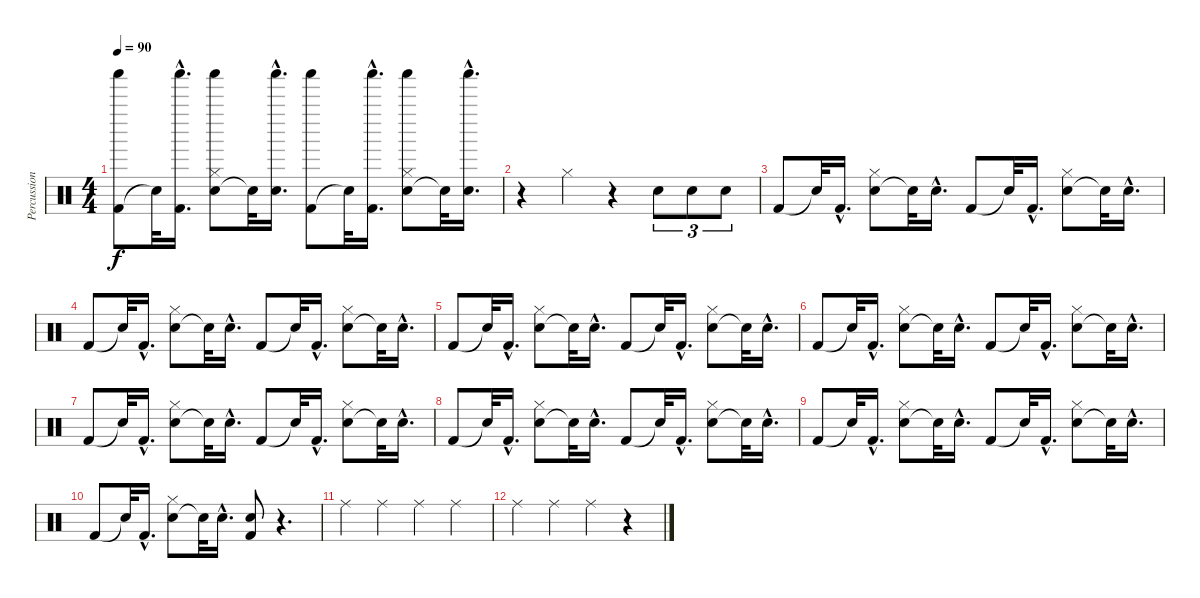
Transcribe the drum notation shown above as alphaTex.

\track ("Percussions" "Percussion") {instrument percussion}
\staff {score}
\articulation defaults
\ts (4 4)
\tempo 90
\clef neutral
\ks c
("Kick (hit) 2" "Shaker (hit)").8{dy f} "Snare (hit)"{t}.32 ("Kick (hit) 2"{hac} "Shaker (hit)"{hac}).16{d} ("Snare (hit) 2" "Shaker (hit)" "Hi-Hat (closed)").8 "Snare (hit)"{t}.32 ("Snare (hit) 2"{hac} "Shaker (hit)"{hac}).16{d} ("Kick (hit) 2" "Shaker (hit)").8 "Snare (hit)"{t}.32 ("Kick (hit) 2"{hac} "Shaker (hit)"{hac}).16{d} ("Snare (hit) 2" "Shaker (hit)" "Hi-Hat (closed)").8 "Snare (hit)"{t}.32 ("Snare (hit) 2"{hac} "Shaker (hit)"{hac}).16{d} |
r.4 "Hi-Hat (closed)".4 r.4 "Snare (hit) 2".8{tu (3 2)} "Snare (hit) 2".8{tu (3 2)} "Snare (hit) 2".8{tu (3 2)} |
"Kick (hit) 2".8 "Snare (hit)"{t}.32 "Kick (hit) 2"{hac}.16{d} ("Snare (hit) 2" "Hi-Hat (closed)").8 "Snare (hit)"{t}.32 "Snare (hit) 2"{hac}.16{d} "Kick (hit) 2".8 "Snare (hit)"{t}.32 "Kick (hit) 2"{hac}.16{d} ("Snare (hit) 2" "Hi-Hat (closed)").8 "Snare (hit)"{t}.32 "Snare (hit) 2"{hac}.16{d} |
"Kick (hit) 2".8 "Snare (hit)"{t}.32 "Kick (hit) 2"{hac}.16{d} ("Snare (hit) 2" "Hi-Hat (closed)").8 "Snare (hit)"{t}.32 "Snare (hit) 2"{hac}.16{d} "Kick (hit) 2".8 "Snare (hit)"{t}.32 "Kick (hit) 2"{hac}.16{d} ("Snare (hit) 2" "Hi-Hat (closed)").8 "Snare (hit)"{t}.32 "Snare (hit) 2"{hac}.16{d} |
"Kick (hit) 2".8 "Snare (hit)"{t}.32 "Kick (hit) 2"{hac}.16{d} ("Snare (hit) 2" "Hi-Hat (closed)").8 "Snare (hit)"{t}.32 "Snare (hit) 2"{hac}.16{d} "Kick (hit) 2".8 "Snare (hit)"{t}.32 "Kick (hit) 2"{hac}.16{d} ("Snare (hit) 2" "Hi-Hat (closed)").8 "Snare (hit)"{t}.32 "Snare (hit) 2"{hac}.16{d} |
"Kick (hit) 2".8 "Snare (hit)"{t}.32 "Kick (hit) 2"{hac}.16{d} ("Snare (hit) 2" "Hi-Hat (closed)").8 "Snare (hit)"{t}.32 "Snare (hit) 2"{hac}.16{d} "Kick (hit) 2".8 "Snare (hit)"{t}.32 "Kick (hit) 2"{hac}.16{d} ("Snare (hit) 2" "Hi-Hat (closed)").8 "Snare (hit)"{t}.32 "Snare (hit) 2"{hac}.16{d} |
"Kick (hit) 2".8 "Snare (hit)"{t}.32 "Kick (hit) 2"{hac}.16{d} ("Snare (hit) 2" "Hi-Hat (closed)").8 "Snare (hit)"{t}.32 "Snare (hit) 2"{hac}.16{d} "Kick (hit) 2".8 "Snare (hit)"{t}.32 "Kick (hit) 2"{hac}.16{d} ("Snare (hit) 2" "Hi-Hat (closed)").8 "Snare (hit)"{t}.32 "Snare (hit) 2"{hac}.16{d} |
"Kick (hit) 2".8 "Snare (hit)"{t}.32 "Kick (hit) 2"{hac}.16{d} ("Snare (hit) 2" "Hi-Hat (closed)").8 "Snare (hit)"{t}.32 "Snare (hit) 2"{hac}.16{d} "Kick (hit) 2".8 "Snare (hit)"{t}.32 "Kick (hit) 2"{hac}.16{d} ("Snare (hit) 2" "Hi-Hat (closed)").8 "Snare (hit)"{t}.32 "Snare (hit) 2"{hac}.16{d} |
"Kick (hit) 2".8 "Snare (hit)"{t}.32 "Kick (hit) 2"{hac}.16{d} ("Snare (hit) 2" "Hi-Hat (closed)").8 "Snare (hit)"{t}.32 "Snare (hit) 2"{hac}.16{d} "Kick (hit) 2".8 "Snare (hit)"{t}.32 "Kick (hit) 2"{hac}.16{d} ("Snare (hit) 2" "Hi-Hat (closed)").8 "Snare (hit)"{t}.32 "Snare (hit) 2"{hac}.16{d} |
"Kick (hit) 2".8 "Snare (hit)"{t}.32 "Kick (hit) 2"{hac}.16{d} ("Snare (hit) 2" "Hi-Hat (closed)").8 "Snare (hit)"{t}.32 "Snare (hit) 2"{hac}.16{d} ("Kick (hit) 2" "Snare (hit) 2").8 r.4{d} |
"Ride (middle)".4 "Ride (middle)".4 "Ride (middle)".4 "Ride (middle)".4 |
"Ride (middle)".4 "Ride (middle)".4 "Ride (middle)".4 r.4
